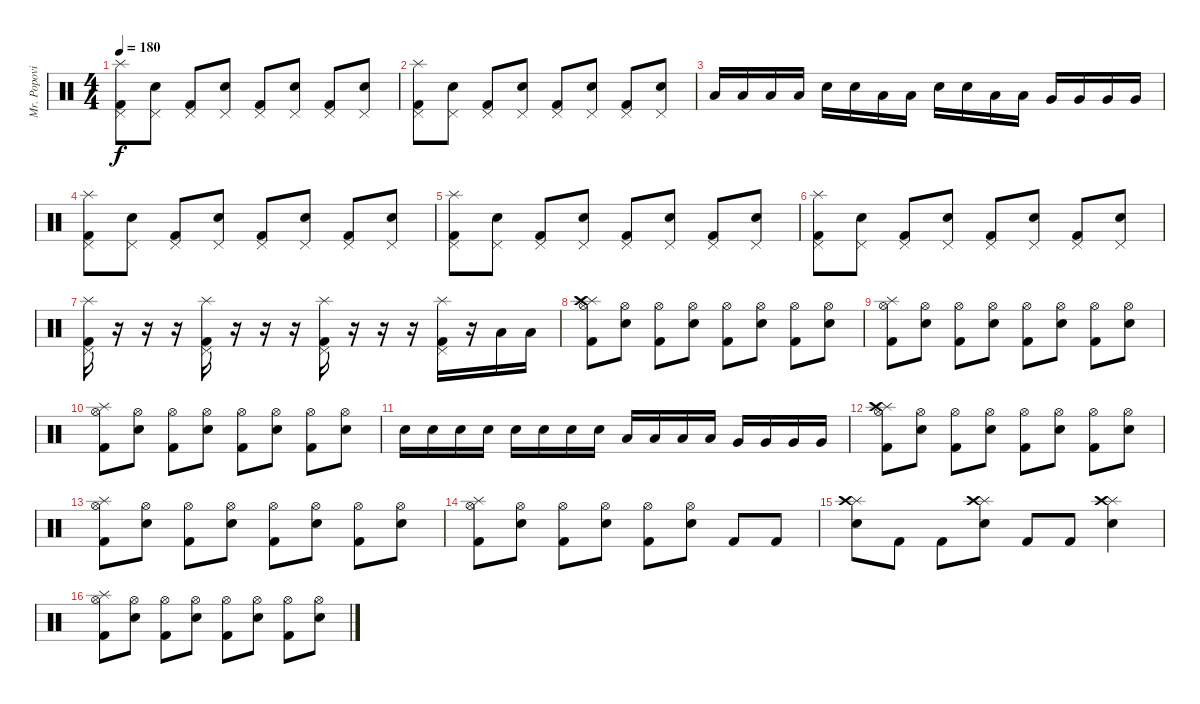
\track ("Mr. Popovic" "Mr. Popovi") {instrument percussion}
\staff {score}
\articulation defaults
\ts (4 4)
\tempo 180
\clef neutral
\ks c
("Splash (hit)" "Pedal Hi-Hat (hit)" "Kick (hit) 2").8{dy f} ("Pedal Hi-Hat (hit)" "Electric Snare (hit)").8 ("Pedal Hi-Hat (hit)" "Kick (hit) 2").8 ("Pedal Hi-Hat (hit)" "Electric Snare (hit)").8 ("Pedal Hi-Hat (hit)" "Kick (hit) 2").8 ("Pedal Hi-Hat (hit)" "Electric Snare (hit)").8 ("Pedal Hi-Hat (hit)" "Kick (hit) 2").8 ("Pedal Hi-Hat (hit)" "Electric Snare (hit)").8 |
("Splash (hit)" "Pedal Hi-Hat (hit)" "Kick (hit) 2").8 ("Pedal Hi-Hat (hit)" "Electric Snare (hit)").8 ("Pedal Hi-Hat (hit)" "Kick (hit) 2").8 ("Pedal Hi-Hat (hit)" "Electric Snare (hit)").8 ("Pedal Hi-Hat (hit)" "Kick (hit) 2").8 ("Pedal Hi-Hat (hit)" "Electric Snare (hit)").8 ("Pedal Hi-Hat (hit)" "Kick (hit) 2").8 ("Pedal Hi-Hat (hit)" "Electric Snare (hit)").8 |
"Low Tom (hit)".16 "Low Tom (hit)".16 "Low Tom (hit)".16 "Low Tom (hit)".16 "Electric Snare (hit)".16 "Electric Snare (hit)".16 "Low Tom (hit)".16 "Low Tom (hit)".16 "Electric Snare (hit)".16 "Electric Snare (hit)".16 "Low Tom (hit)".16 "Low Tom (hit)".16 "Very Low Tom (hit)".16 "Very Low Tom (hit)".16 "Very Low Tom (hit)".16 "Very Low Tom (hit)".16 |
("Splash (hit)" "Pedal Hi-Hat (hit)" "Kick (hit) 2").8 ("Pedal Hi-Hat (hit)" "Electric Snare (hit)").8 ("Pedal Hi-Hat (hit)" "Kick (hit) 2").8 ("Pedal Hi-Hat (hit)" "Electric Snare (hit)").8 ("Pedal Hi-Hat (hit)" "Kick (hit) 2").8 ("Pedal Hi-Hat (hit)" "Electric Snare (hit)").8 ("Pedal Hi-Hat (hit)" "Kick (hit) 2").8 ("Pedal Hi-Hat (hit)" "Electric Snare (hit)").8 |
("Splash (hit)" "Pedal Hi-Hat (hit)" "Kick (hit) 2").8 ("Pedal Hi-Hat (hit)" "Electric Snare (hit)").8 ("Pedal Hi-Hat (hit)" "Kick (hit) 2").8 ("Pedal Hi-Hat (hit)" "Electric Snare (hit)").8 ("Pedal Hi-Hat (hit)" "Kick (hit) 2").8 ("Pedal Hi-Hat (hit)" "Electric Snare (hit)").8 ("Pedal Hi-Hat (hit)" "Kick (hit) 2").8 ("Pedal Hi-Hat (hit)" "Electric Snare (hit)").8 |
("Splash (hit)" "Pedal Hi-Hat (hit)" "Kick (hit) 2").8 ("Pedal Hi-Hat (hit)" "Electric Snare (hit)").8 ("Pedal Hi-Hat (hit)" "Kick (hit) 2").8 ("Pedal Hi-Hat (hit)" "Electric Snare (hit)").8 ("Pedal Hi-Hat (hit)" "Kick (hit) 2").8 ("Pedal Hi-Hat (hit)" "Electric Snare (hit)").8 ("Pedal Hi-Hat (hit)" "Kick (hit) 2").8 ("Pedal Hi-Hat (hit)" "Electric Snare (hit)").8 |
("Splash (hit)" "Pedal Hi-Hat (hit)" "Kick (hit) 2").16 r.16 r.16 r.16 ("Splash (hit)" "Pedal Hi-Hat (hit)" "Kick (hit) 2").16 r.16 r.16 r.16 ("Splash (hit)" "Pedal Hi-Hat (hit)" "Kick (hit) 2").16 r.16 r.16 r.16 ("Splash (hit)" "Pedal Hi-Hat (hit)" "Kick (hit) 2").16 r.16 "Low Tom (hit)".16 "Low Tom (hit)".16 |
("Splash (hit)" "Crash high (hit)" "Hi-Hat (open)" "Kick (hit) 2").8 ("Hi-Hat (open)" "Electric Snare (hit)").8 ("Hi-Hat (open)" "Kick (hit) 2").8 ("Hi-Hat (open)" "Electric Snare (hit)").8 ("Hi-Hat (open)" "Kick (hit) 2").8 ("Hi-Hat (open)" "Electric Snare (hit)").8 ("Hi-Hat (open)" "Kick (hit) 2").8 ("Hi-Hat (open)" "Electric Snare (hit)").8 |
("Splash (hit)" "Hi-Hat (open)" "Kick (hit) 2").8 ("Hi-Hat (open)" "Electric Snare (hit)").8 ("Hi-Hat (open)" "Kick (hit) 2").8 ("Hi-Hat (open)" "Electric Snare (hit)").8 ("Hi-Hat (open)" "Kick (hit) 2").8 ("Hi-Hat (open)" "Electric Snare (hit)").8 ("Hi-Hat (open)" "Kick (hit) 2").8 ("Hi-Hat (open)" "Electric Snare (hit)").8 |
("Splash (hit)" "Hi-Hat (open)" "Kick (hit) 2").8 ("Hi-Hat (open)" "Electric Snare (hit)").8 ("Hi-Hat (open)" "Kick (hit) 2").8 ("Hi-Hat (open)" "Electric Snare (hit)").8 ("Hi-Hat (open)" "Kick (hit) 2").8 ("Hi-Hat (open)" "Electric Snare (hit)").8 ("Hi-Hat (open)" "Kick (hit) 2").8 ("Hi-Hat (open)" "Electric Snare (hit)").8 |
"Electric Snare (hit)".16 "Electric Snare (hit)".16 "Electric Snare (hit)".16 "Electric Snare (hit)".16 "Electric Snare (hit)".16 "Electric Snare (hit)".16 "Electric Snare (hit)".16 "Electric Snare (hit)".16 "Low Tom (hit)".16 "Low Tom (hit)".16 "Low Tom (hit)".16 "Low Tom (hit)".16 "Very Low Tom (hit)".16 "Very Low Tom (hit)".16 "Very Low Tom (hit)".16 "Very Low Tom (hit)".16 |
("Splash (hit)" "Crash high (hit)" "Hi-Hat (open)" "Kick (hit) 2").8 ("Hi-Hat (open)" "Electric Snare (hit)").8 ("Hi-Hat (open)" "Kick (hit) 2").8 ("Hi-Hat (open)" "Electric Snare (hit)").8 ("Hi-Hat (open)" "Kick (hit) 2").8 ("Hi-Hat (open)" "Electric Snare (hit)").8 ("Hi-Hat (open)" "Kick (hit) 2").8 ("Hi-Hat (open)" "Electric Snare (hit)").8 |
("Splash (hit)" "Hi-Hat (open)" "Kick (hit) 2").8 ("Hi-Hat (open)" "Electric Snare (hit)").8 ("Hi-Hat (open)" "Kick (hit) 2").8 ("Hi-Hat (open)" "Electric Snare (hit)").8 ("Hi-Hat (open)" "Kick (hit) 2").8 ("Hi-Hat (open)" "Electric Snare (hit)").8 ("Hi-Hat (open)" "Kick (hit) 2").8 ("Hi-Hat (open)" "Electric Snare (hit)").8 |
("Splash (hit)" "Hi-Hat (open)" "Kick (hit) 2").8 ("Hi-Hat (open)" "Electric Snare (hit)").8 ("Hi-Hat (open)" "Kick (hit) 2").8 ("Hi-Hat (open)" "Electric Snare (hit)").8 ("Hi-Hat (open)" "Kick (hit) 2").8 ("Hi-Hat (open)" "Electric Snare (hit)").8 "Kick (hit) 2".8 "Kick (hit) 2".8 |
("Splash (hit)" "Crash high (hit)" "Electric Snare (hit)").8 "Kick (hit) 2".8 "Kick (hit) 2".8 ("Splash (hit)" "Crash high (hit)" "Electric Snare (hit)").8 "Kick (hit) 2".8 "Kick (hit) 2".8 ("Splash (hit)" "Crash high (hit)" "Electric Snare (hit)").4 |
("Splash (hit)" "Hi-Hat (open)" "Kick (hit) 2").8 ("Hi-Hat (open)" "Electric Snare (hit)").8 ("Hi-Hat (open)" "Kick (hit) 2").8 ("Hi-Hat (open)" "Electric Snare (hit)").8 ("Hi-Hat (open)" "Kick (hit) 2").8 ("Hi-Hat (open)" "Electric Snare (hit)").8 ("Hi-Hat (open)" "Kick (hit) 2").8 ("Hi-Hat (open)" "Electric Snare (hit)").8
